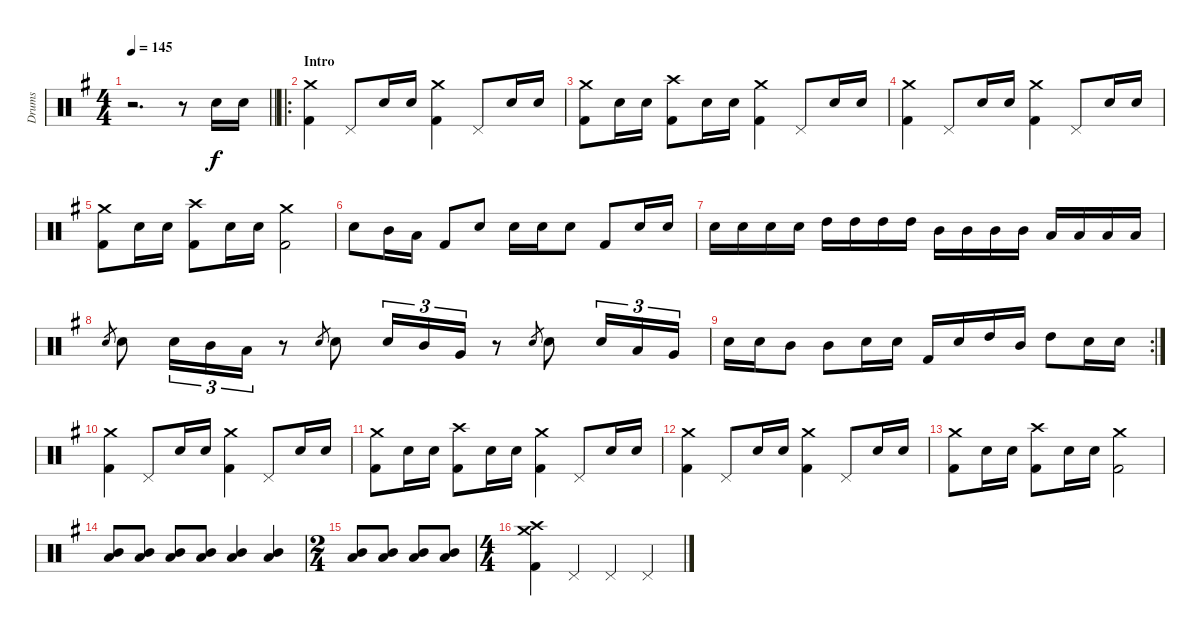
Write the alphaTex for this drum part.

\track ("Drums" "Drums") {instrument percussion}
\staff {score}
\articulation defaults
\ts (4 4)
\tempo 145
\clef neutral
\barLineRight lightlight
\ks eminor
r.2{d dy f} r.8 "Electric Snare (hit)".16 "Electric Snare (hit)".16 |
\ro
\section ("" "Intro")
("Crash medium (hit)" "Kick (hit) 2").4 "Pedal Hi-Hat (hit)".8 "Electric Snare (hit)".16 "Electric Snare (hit)".16 ("Crash medium (hit)" "Kick (hit) 2").4 "Pedal Hi-Hat (hit)".8 "Electric Snare (hit)".16 "Electric Snare (hit)".16 |
("Crash medium (hit)" "Kick (hit) 2").8 "Electric Snare (hit)".16 "Electric Snare (hit)".16 ("Crash high (hit)" "Kick (hit) 2").8 "Electric Snare (hit)".16 "Electric Snare (hit)".16 ("Crash medium (hit)" "Kick (hit) 2").4 "Pedal Hi-Hat (hit)".8 "Electric Snare (hit)".16 "Electric Snare (hit)".16 |
("Crash medium (hit)" "Kick (hit) 2").4 "Pedal Hi-Hat (hit)".8 "Electric Snare (hit)".16 "Electric Snare (hit)".16 ("Crash medium (hit)" "Kick (hit) 2").4 "Pedal Hi-Hat (hit)".8 "Electric Snare (hit)".16 "Electric Snare (hit)".16 |
("Crash medium (hit)" "Kick (hit) 2").8 "Electric Snare (hit)".16 "Electric Snare (hit)".16 ("Crash high (hit)" "Kick (hit) 2").8 "Electric Snare (hit)".16 "Electric Snare (hit)".16 ("Crash medium (hit)" "Kick (hit) 2").2 |
"Electric Snare (hit)".8 "Mid Tom (hit)".16 "Low Tom (hit)".16 "Kick (hit) 2".8 "Electric Snare (hit)".8 "Electric Snare (hit)".16 "Electric Snare (hit)".16 "Electric Snare (hit)".8 "Kick (hit) 2".8 "Electric Snare (hit)".16 "Electric Snare (hit)".16 |
"Electric Snare (hit)".16 "Electric Snare (hit)".16 "Electric Snare (hit)".16 "Electric Snare (hit)".16 "High Tom (hit)".16 "High Tom (hit)".16 "High Tom (hit)".16 "High Tom (hit)".16 "Mid Tom (hit)".16 "Mid Tom (hit)".16 "Mid Tom (hit)".16 "Mid Tom (hit)".16 "Low Tom (hit)".16 "Low Tom (hit)".16 "Low Tom (hit)".16 "Low Tom (hit)".16 |
"Electric Snare (hit)".8{gr} "Electric Snare (hit)".8 "Electric Snare (hit)".16{tu (3 2)} "Mid Tom (hit)".16{tu (3 2)} "Low Tom (hit)".16{tu (3 2)} r.8 "Electric Snare (hit)".8{gr} "Electric Snare (hit)".8 "Electric Snare (hit)".16{tu (3 2)} "Mid Tom (hit)".16{tu (3 2)} "Very Low Tom (hit)".16{tu (3 2)} r.8 "Electric Snare (hit)".8{gr} "Electric Snare (hit)".8 "Electric Snare (hit)".16{tu (3 2)} "Low Tom (hit)".16{tu (3 2)} "Very Low Tom (hit)".16{tu (3 2)} |
\rc 2 "Electric Snare (hit)".16 "Electric Snare (hit)".16 "Mid Tom (hit)".8 "Mid Tom (hit)".8 "Electric Snare (hit)".16 "Electric Snare (hit)".16 "Kick (hit) 2".16 "Electric Snare (hit)".16 "High Tom (hit)".16 "Mid Tom (hit)".16 "High Tom (hit)".8 "Electric Snare (hit)".16 "Electric Snare (hit)".16
|
("Crash medium (hit)" "Kick (hit) 2").4 "Pedal Hi-Hat (hit)".8 "Electric Snare (hit)".16 "Electric Snare (hit)".16 ("Crash medium (hit)" "Kick (hit) 2").4 "Pedal Hi-Hat (hit)".8 "Electric Snare (hit)".16 "Electric Snare (hit)".16 |
("Crash medium (hit)" "Kick (hit) 2").8 "Electric Snare (hit)".16 "Electric Snare (hit)".16 ("Crash high (hit)" "Kick (hit) 2").8 "Electric Snare (hit)".16 "Electric Snare (hit)".16 ("Crash medium (hit)" "Kick (hit) 2").4 "Pedal Hi-Hat (hit)".8 "Electric Snare (hit)".16 "Electric Snare (hit)".16 |
("Crash medium (hit)" "Kick (hit) 2").4 "Pedal Hi-Hat (hit)".8 "Electric Snare (hit)".16 "Electric Snare (hit)".16 ("Crash medium (hit)" "Kick (hit) 2").4 "Pedal Hi-Hat (hit)".8 "Electric Snare (hit)".16 "Electric Snare (hit)".16 |
("Crash medium (hit)" "Kick (hit) 2").8 "Electric Snare (hit)".16 "Electric Snare (hit)".16 ("Crash high (hit)" "Kick (hit) 2").8 "Electric Snare (hit)".16 "Electric Snare (hit)".16 ("Crash medium (hit)" "Kick (hit) 2").2 |
("Mid Tom (hit)" "Low Tom (hit)").8 ("Mid Tom (hit)" "Low Tom (hit)").8 ("Mid Tom (hit)" "Low Tom (hit)").8 ("Mid Tom (hit)" "Low Tom (hit)").8 ("Mid Tom (hit)" "Low Tom (hit)").4 ("Low Tom (hit)" "Mid Tom (hit)").4 |
\ts (2 4)
("Low Tom (hit)" "Mid Tom (hit)").8 ("Low Tom (hit)" "Mid Tom (hit)").8 ("Mid Tom (hit)" "Low Tom (hit)").8 ("Mid Tom (hit)" "Low Tom (hit)").8 |
\ts (4 4)
("Crash high (hit)" "Kick (hit) 2" "Crash medium (hit)").4 "Pedal Hi-Hat (hit)".4 "Pedal Hi-Hat (hit)".4 "Pedal Hi-Hat (hit)".4
